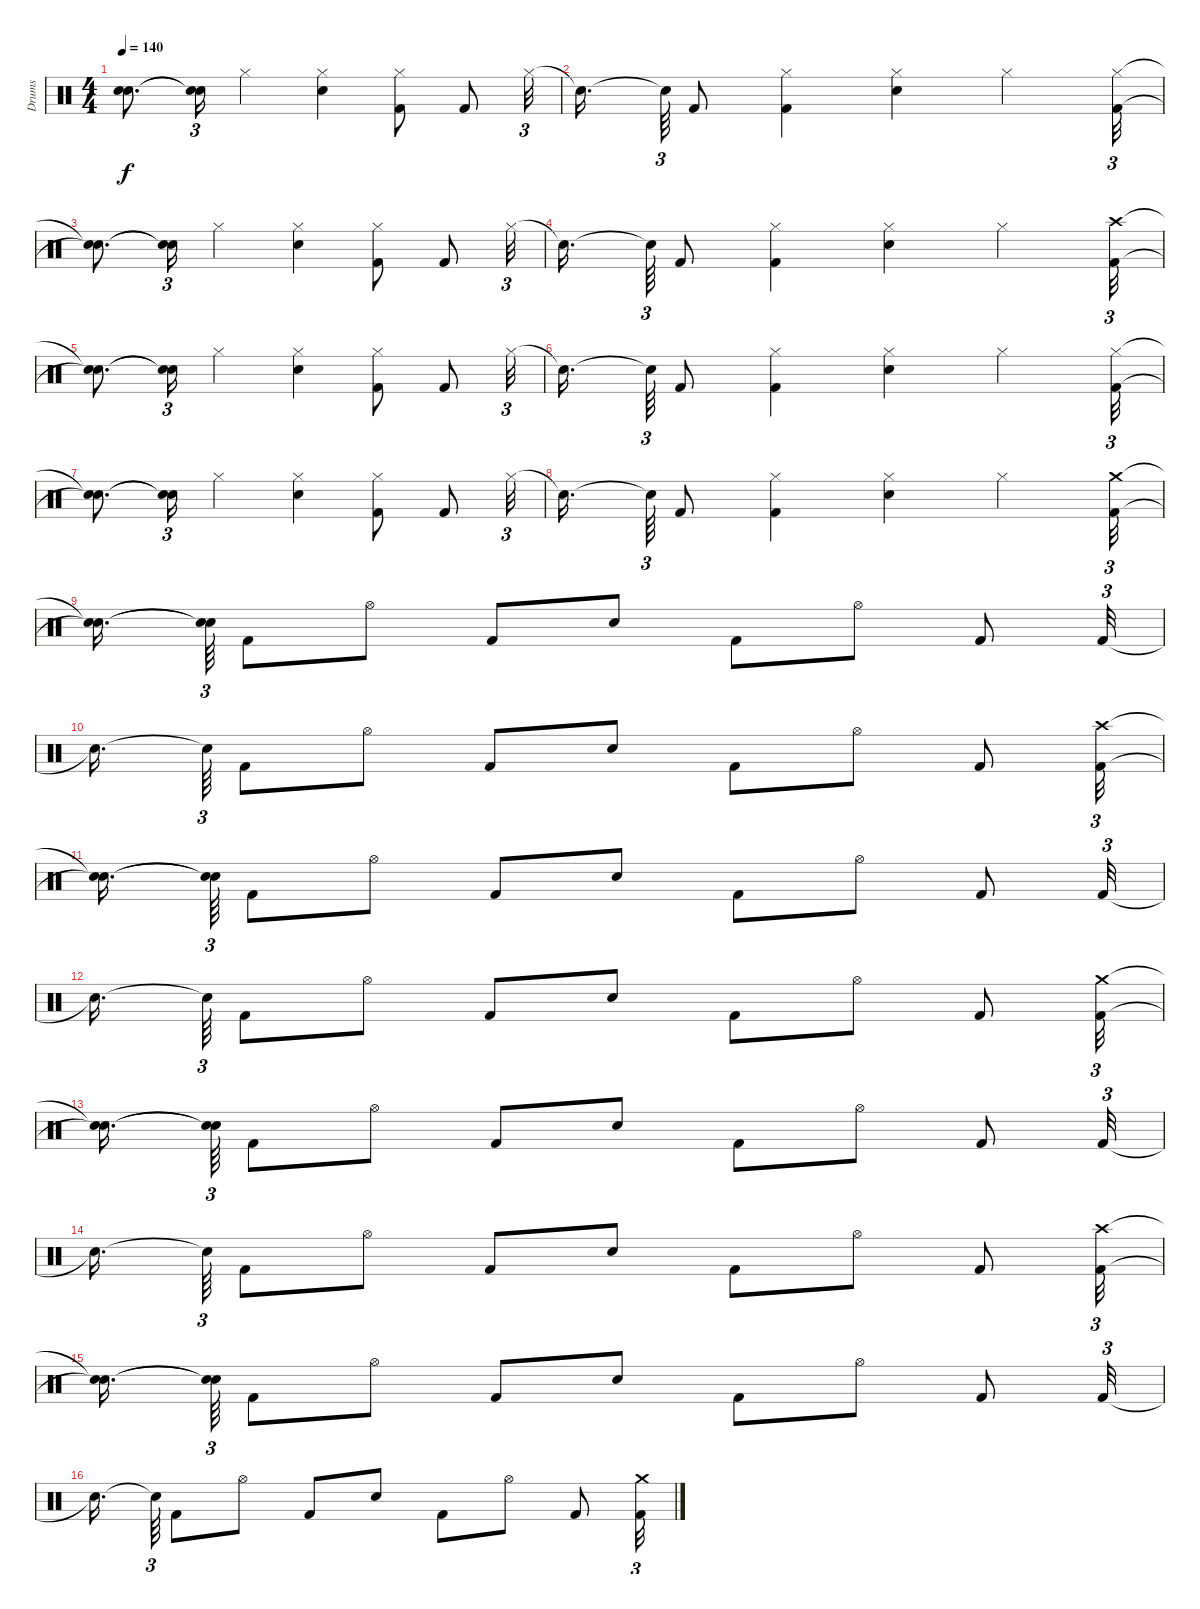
\track ("Drums" "Drums") {instrument percussion}
\staff {score}
\articulation defaults
\ts (4 4)
\tempo 140
\clef neutral
\ks c
("Snare (hit)"{t} "Snare (hit)"{t}).8{d dy f} ("Snare (hit)"{t} "Snare (hit)"{t}).16{tu (3 2)} "Hi-Hat (closed)".4 ("Snare (hit) 2" "Hi-Hat (closed)").4 ("Kick (hit) 2" "Hi-Hat (closed)").8 "Kick (hit) 2".8 "Hi-Hat (closed)".32{tu (3 2)} |
"Snare (hit)"{t}.16{d} "Snare (hit)"{t}.64{tu (3 2)} "Kick (hit) 2".8 ("Kick (hit) 2" "Hi-Hat (closed)").4 ("Snare (hit) 2" "Hi-Hat (closed)").4 "Hi-Hat (closed)".4 ("Hi-Hat (closed)" "Kick (hit) 2").32{tu (3 2)} |
("Snare (hit)"{t} "Snare (hit)"{t}).8{d} ("Snare (hit)"{t} "Snare (hit)"{t}).16{tu (3 2)} "Hi-Hat (closed)".4 ("Snare (hit) 2" "Hi-Hat (closed)").4 ("Kick (hit) 2" "Hi-Hat (closed)").8 "Kick (hit) 2".8 "Hi-Hat (closed)".32{tu (3 2)} |
"Snare (hit)"{t}.16{d} "Snare (hit)"{t}.64{tu (3 2)} "Kick (hit) 2".8 ("Kick (hit) 2" "Hi-Hat (closed)").4 ("Snare (hit) 2" "Hi-Hat (closed)").4 "Hi-Hat (closed)".4 ("Kick (hit) 2" "Crash high (hit)").32{tu (3 2)} |
("Snare (hit)"{t} "Snare (hit)"{t}).8{d} ("Snare (hit)"{t} "Snare (hit)"{t}).16{tu (3 2)} "Hi-Hat (closed)".4 ("Snare (hit) 2" "Hi-Hat (closed)").4 ("Kick (hit) 2" "Hi-Hat (closed)").8 "Kick (hit) 2".8 "Hi-Hat (closed)".32{tu (3 2)} |
"Snare (hit)"{t}.16{d} "Snare (hit)"{t}.64{tu (3 2)} "Kick (hit) 2".8 ("Kick (hit) 2" "Hi-Hat (closed)").4 ("Snare (hit) 2" "Hi-Hat (closed)").4 "Hi-Hat (closed)".4 ("Hi-Hat (closed)" "Kick (hit) 2").32{tu (3 2)} |
("Snare (hit)"{t} "Snare (hit)"{t}).8{d} ("Snare (hit)"{t} "Snare (hit)"{t}).16{tu (3 2)} "Hi-Hat (closed)".4 ("Snare (hit) 2" "Hi-Hat (closed)").4 ("Kick (hit) 2" "Hi-Hat (closed)").8 "Kick (hit) 2".8 "Hi-Hat (closed)".32{tu (3 2)} |
"Snare (hit)"{t}.16{d} "Snare (hit)"{t}.64{tu (3 2)} "Kick (hit) 2".8 ("Kick (hit) 2" "Hi-Hat (closed)").4 ("Snare (hit) 2" "Hi-Hat (closed)").4 "Hi-Hat (closed)".4 ("Crash medium (hit)" "Kick (hit) 2").32{tu (3 2)} |
("Snare (hit)"{t} "Snare (hit)"{t}).16{d} ("Snare (hit)"{t} "Snare (hit)"{t}).64{tu (3 2)} "Kick (hit) 2".8 "Hi-Hat (open)".8 "Kick (hit) 2".8 "Snare (hit) 2".8 "Kick (hit) 2".8 "Hi-Hat (open)".8 "Kick (hit) 2".8 "Kick (hit) 2".32{tu (3 2)} |
"Snare (hit)"{t}.16{d} "Snare (hit)"{t}.64{tu (3 2)} "Kick (hit) 2".8 "Hi-Hat (open)".8 "Kick (hit) 2".8 "Snare (hit) 2".8 "Kick (hit) 2".8 "Hi-Hat (open)".8 "Kick (hit) 2".8 ("Crash high (hit)" "Kick (hit) 2").32{tu (3 2)} |
("Snare (hit)"{t} "Snare (hit)"{t}).16{d} ("Snare (hit)"{t} "Snare (hit)"{t}).64{tu (3 2)} "Kick (hit) 2".8 "Hi-Hat (open)".8 "Kick (hit) 2".8 "Snare (hit) 2".8 "Kick (hit) 2".8 "Hi-Hat (open)".8 "Kick (hit) 2".8 "Kick (hit) 2".32{tu (3 2)} |
"Snare (hit)"{t}.16{d} "Snare (hit)"{t}.64{tu (3 2)} "Kick (hit) 2".8 "Hi-Hat (open)".8 "Kick (hit) 2".8 "Snare (hit) 2".8 "Kick (hit) 2".8 "Hi-Hat (open)".8 "Kick (hit) 2".8 ("Crash medium (hit)" "Kick (hit) 2").32{tu (3 2)} |
("Snare (hit)"{t} "Snare (hit)"{t}).16{d} ("Snare (hit)"{t} "Snare (hit)"{t}).64{tu (3 2)} "Kick (hit) 2".8 "Hi-Hat (open)".8 "Kick (hit) 2".8 "Snare (hit) 2".8 "Kick (hit) 2".8 "Hi-Hat (open)".8 "Kick (hit) 2".8 "Kick (hit) 2".32{tu (3 2)} |
"Snare (hit)"{t}.16{d} "Snare (hit)"{t}.64{tu (3 2)} "Kick (hit) 2".8 "Hi-Hat (open)".8 "Kick (hit) 2".8 "Snare (hit) 2".8 "Kick (hit) 2".8 "Hi-Hat (open)".8 "Kick (hit) 2".8 ("Crash high (hit)" "Kick (hit) 2").32{tu (3 2)} |
("Snare (hit)"{t} "Snare (hit)"{t}).16{d} ("Snare (hit)"{t} "Snare (hit)"{t}).64{tu (3 2)} "Kick (hit) 2".8 "Hi-Hat (open)".8 "Kick (hit) 2".8 "Snare (hit) 2".8 "Kick (hit) 2".8 "Hi-Hat (open)".8 "Kick (hit) 2".8 "Kick (hit) 2".32{tu (3 2)} |
"Snare (hit)"{t}.16{d} "Snare (hit)"{t}.64{tu (3 2)} "Kick (hit) 2".8 "Hi-Hat (open)".8 "Kick (hit) 2".8 "Snare (hit) 2".8 "Kick (hit) 2".8 "Hi-Hat (open)".8 "Kick (hit) 2".8 ("Crash medium (hit)" "Kick (hit) 2").32{tu (3 2)}
